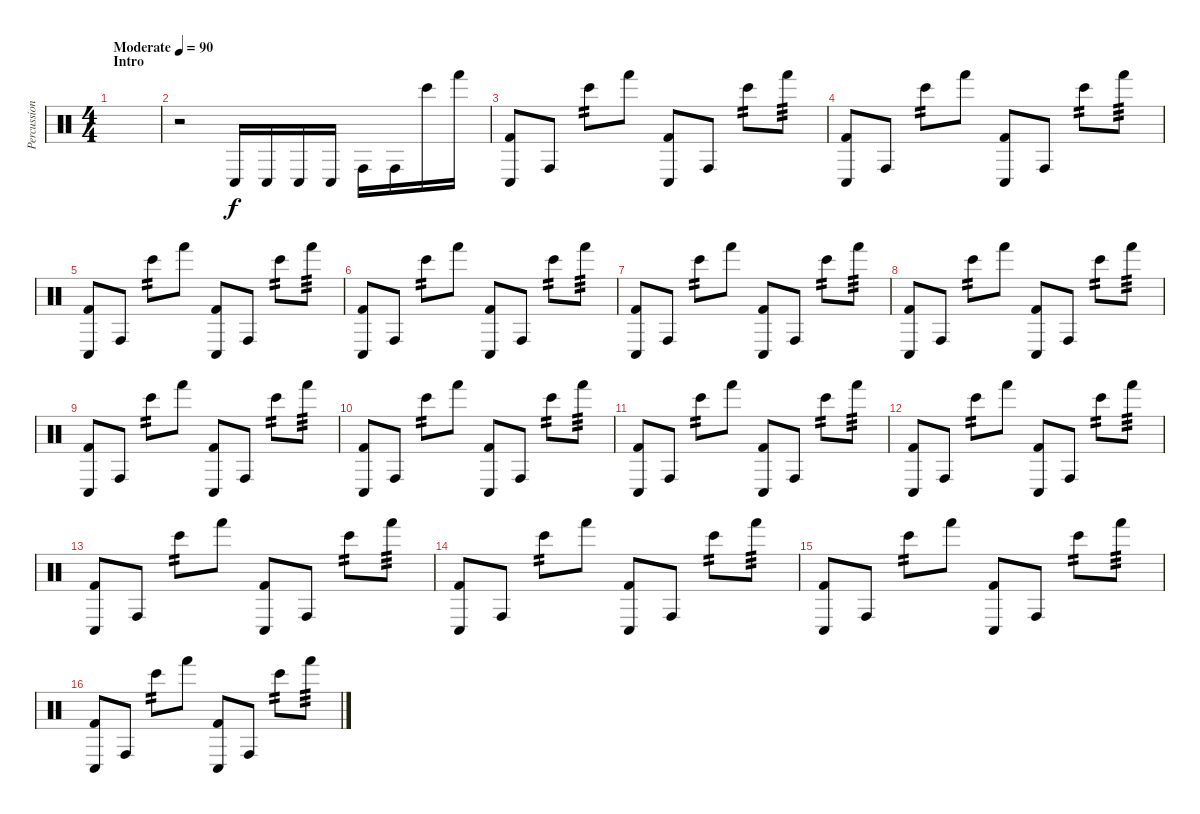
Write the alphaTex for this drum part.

\track ("Percussion" "Percussion") {instrument percussion}
\staff {score}
\articulation defaults
\ts (4 4)
\section ("" "Intro")
\tempo (90 "Moderate")
\clef neutral
\ks c
|
r.2 "Conga low (hit)".16 "Conga low (hit)".16 "Conga low (hit)".16 "Conga low (hit)".16 "Conga high (hit)".16 "Conga high (hit)".16 "Bongo High (hit)".16 "Hand (hit)".16 |
("Conga low (hit)" "Kick (hit) 2").8 "Conga high (hit)".8 "Bongo High (hit)".8{tp 2} "Hand (hit)".8 ("Conga low (hit)" "Kick (hit) 2").8 "Conga high (hit)".8 "Bongo High (hit)".8{tp 2} "Hand (hit)".8{tp 3} |
("Conga low (hit)" "Kick (hit) 2").8 "Conga high (hit)".8 "Bongo High (hit)".8{tp 2} "Hand (hit)".8 ("Conga low (hit)" "Kick (hit) 2").8 "Conga high (hit)".8 "Bongo High (hit)".8{tp 2} "Hand (hit)".8{tp 3} |
("Conga low (hit)" "Kick (hit) 2").8 "Conga high (hit)".8 "Bongo High (hit)".8{tp 2} "Hand (hit)".8 ("Conga low (hit)" "Kick (hit) 2").8 "Conga high (hit)".8 "Bongo High (hit)".8{tp 2} "Hand (hit)".8{tp 3} |
("Conga low (hit)" "Kick (hit) 2").8 "Conga high (hit)".8 "Bongo High (hit)".8{tp 2} "Hand (hit)".8 ("Conga low (hit)" "Kick (hit) 2").8 "Conga high (hit)".8 "Bongo High (hit)".8{tp 2} "Hand (hit)".8{tp 3} |
("Conga low (hit)" "Kick (hit) 2").8 "Conga high (hit)".8 "Bongo High (hit)".8{tp 2} "Hand (hit)".8 ("Conga low (hit)" "Kick (hit) 2").8 "Conga high (hit)".8 "Bongo High (hit)".8{tp 2} "Hand (hit)".8{tp 3} |
("Conga low (hit)" "Kick (hit) 2").8 "Conga high (hit)".8 "Bongo High (hit)".8{tp 2} "Hand (hit)".8 ("Conga low (hit)" "Kick (hit) 2").8 "Conga high (hit)".8 "Bongo High (hit)".8{tp 2} "Hand (hit)".8{tp 3} |
("Conga low (hit)" "Kick (hit) 2").8 "Conga high (hit)".8 "Bongo High (hit)".8{tp 2} "Hand (hit)".8 ("Conga low (hit)" "Kick (hit) 2").8 "Conga high (hit)".8 "Bongo High (hit)".8{tp 2} "Hand (hit)".8{tp 3} |
("Conga low (hit)" "Kick (hit) 2").8 "Conga high (hit)".8 "Bongo High (hit)".8{tp 2} "Hand (hit)".8 ("Conga low (hit)" "Kick (hit) 2").8 "Conga high (hit)".8 "Bongo High (hit)".8{tp 2} "Hand (hit)".8{tp 3} |
("Conga low (hit)" "Kick (hit) 2").8 "Conga high (hit)".8 "Bongo High (hit)".8{tp 2} "Hand (hit)".8 ("Conga low (hit)" "Kick (hit) 2").8 "Conga high (hit)".8 "Bongo High (hit)".8{tp 2} "Hand (hit)".8{tp 3} |
("Conga low (hit)" "Kick (hit) 2").8 "Conga high (hit)".8 "Bongo High (hit)".8{tp 2} "Hand (hit)".8 ("Conga low (hit)" "Kick (hit) 2").8 "Conga high (hit)".8 "Bongo High (hit)".8{tp 2} "Hand (hit)".8{tp 3} |
("Conga low (hit)" "Kick (hit) 2").8 "Conga high (hit)".8 "Bongo High (hit)".8{tp 2} "Hand (hit)".8 ("Conga low (hit)" "Kick (hit) 2").8 "Conga high (hit)".8 "Bongo High (hit)".8{tp 2} "Hand (hit)".8{tp 3} |
("Conga low (hit)" "Kick (hit) 2").8 "Conga high (hit)".8 "Bongo High (hit)".8{tp 2} "Hand (hit)".8 ("Conga low (hit)" "Kick (hit) 2").8 "Conga high (hit)".8 "Bongo High (hit)".8{tp 2} "Hand (hit)".8{tp 3} |
("Conga low (hit)" "Kick (hit) 2").8 "Conga high (hit)".8 "Bongo High (hit)".8{tp 2} "Hand (hit)".8 ("Conga low (hit)" "Kick (hit) 2").8 "Conga high (hit)".8 "Bongo High (hit)".8{tp 2} "Hand (hit)".8{tp 3} |
("Conga low (hit)" "Kick (hit) 2").8 "Conga high (hit)".8 "Bongo High (hit)".8{tp 2} "Hand (hit)".8 ("Conga low (hit)" "Kick (hit) 2").8 "Conga high (hit)".8 "Bongo High (hit)".8{tp 2} "Hand (hit)".8{tp 3}
